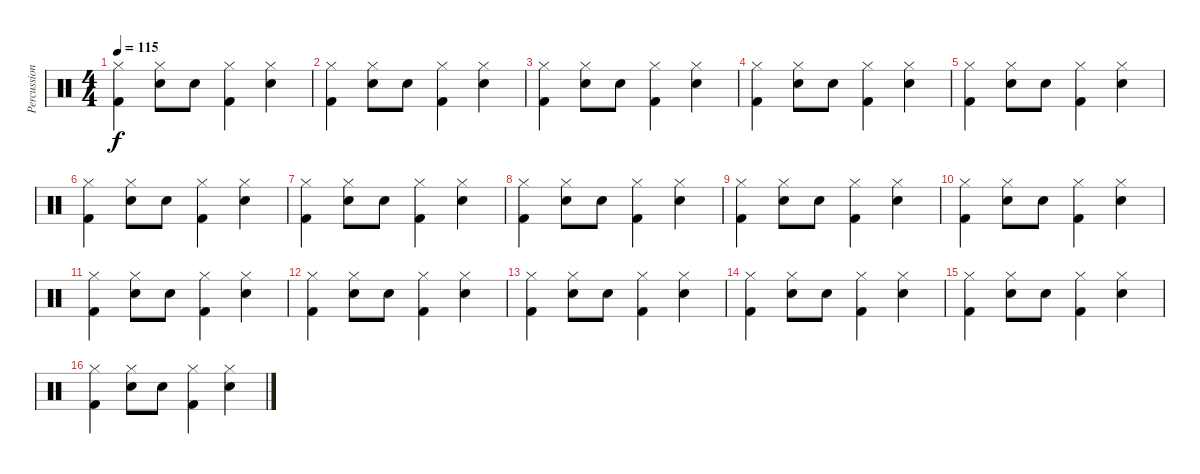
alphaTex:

\track ("Percussion" "Percussion") {instrument percussion}
\staff {score}
\articulation defaults
\ts (4 4)
\tempo 115
\clef neutral
\ks c
("Hi-Hat (closed)" "Kick (hit) 2").4{dy f} ("Hi-Hat (closed)" "Snare (hit) 2").8 "Snare (hit) 2".8 ("Hi-Hat (closed)" "Kick (hit) 2").4 ("Hi-Hat (closed)" "Snare (hit) 2").4 |
("Hi-Hat (closed)" "Kick (hit) 2").4 ("Hi-Hat (closed)" "Snare (hit) 2").8 "Snare (hit) 2".8 ("Hi-Hat (closed)" "Kick (hit) 2").4 ("Hi-Hat (closed)" "Snare (hit) 2").4 |
("Hi-Hat (closed)" "Kick (hit) 2").4 ("Hi-Hat (closed)" "Snare (hit) 2").8 "Snare (hit) 2".8 ("Hi-Hat (closed)" "Kick (hit) 2").4 ("Hi-Hat (closed)" "Snare (hit) 2").4 |
("Hi-Hat (closed)" "Kick (hit) 2").4 ("Hi-Hat (closed)" "Snare (hit) 2").8 "Snare (hit) 2".8 ("Hi-Hat (closed)" "Kick (hit) 2").4 ("Hi-Hat (closed)" "Snare (hit) 2").4 |
("Hi-Hat (closed)" "Kick (hit) 2").4 ("Hi-Hat (closed)" "Snare (hit) 2").8 "Snare (hit) 2".8 ("Hi-Hat (closed)" "Kick (hit) 2").4 ("Hi-Hat (closed)" "Snare (hit) 2").4 |
("Hi-Hat (closed)" "Kick (hit) 2").4 ("Hi-Hat (closed)" "Snare (hit) 2").8 "Snare (hit) 2".8 ("Hi-Hat (closed)" "Kick (hit) 2").4 ("Hi-Hat (closed)" "Snare (hit) 2").4 |
("Hi-Hat (closed)" "Kick (hit) 2").4 ("Hi-Hat (closed)" "Snare (hit) 2").8 "Snare (hit) 2".8 ("Hi-Hat (closed)" "Kick (hit) 2").4 ("Hi-Hat (closed)" "Snare (hit) 2").4 |
("Hi-Hat (closed)" "Kick (hit) 2").4 ("Hi-Hat (closed)" "Snare (hit) 2").8 "Snare (hit) 2".8 ("Hi-Hat (closed)" "Kick (hit) 2").4 ("Hi-Hat (closed)" "Snare (hit) 2").4 |
("Hi-Hat (closed)" "Kick (hit) 2").4 ("Hi-Hat (closed)" "Snare (hit) 2").8 "Snare (hit) 2".8 ("Hi-Hat (closed)" "Kick (hit) 2").4 ("Hi-Hat (closed)" "Snare (hit) 2").4 |
("Hi-Hat (closed)" "Kick (hit) 2").4 ("Hi-Hat (closed)" "Snare (hit) 2").8 "Snare (hit) 2".8 ("Hi-Hat (closed)" "Kick (hit) 2").4 ("Hi-Hat (closed)" "Snare (hit) 2").4 |
("Hi-Hat (closed)" "Kick (hit) 2").4 ("Hi-Hat (closed)" "Snare (hit) 2").8 "Snare (hit) 2".8 ("Hi-Hat (closed)" "Kick (hit) 2").4 ("Hi-Hat (closed)" "Snare (hit) 2").4 |
("Hi-Hat (closed)" "Kick (hit) 2").4 ("Hi-Hat (closed)" "Snare (hit) 2").8 "Snare (hit) 2".8 ("Hi-Hat (closed)" "Kick (hit) 2").4 ("Hi-Hat (closed)" "Snare (hit) 2").4 |
("Hi-Hat (closed)" "Kick (hit) 2").4 ("Hi-Hat (closed)" "Snare (hit) 2").8 "Snare (hit) 2".8 ("Hi-Hat (closed)" "Kick (hit) 2").4 ("Hi-Hat (closed)" "Snare (hit) 2").4 |
("Hi-Hat (closed)" "Kick (hit) 2").4 ("Hi-Hat (closed)" "Snare (hit) 2").8 "Snare (hit) 2".8 ("Hi-Hat (closed)" "Kick (hit) 2").4 ("Hi-Hat (closed)" "Snare (hit) 2").4 |
("Hi-Hat (closed)" "Kick (hit) 2").4 ("Hi-Hat (closed)" "Snare (hit) 2").8 "Snare (hit) 2".8 ("Hi-Hat (closed)" "Kick (hit) 2").4 ("Hi-Hat (closed)" "Snare (hit) 2").4 |
("Hi-Hat (closed)" "Kick (hit) 2").4 ("Hi-Hat (closed)" "Snare (hit) 2").8 "Snare (hit) 2".8 ("Hi-Hat (closed)" "Kick (hit) 2").4 ("Hi-Hat (closed)" "Snare (hit) 2").4
